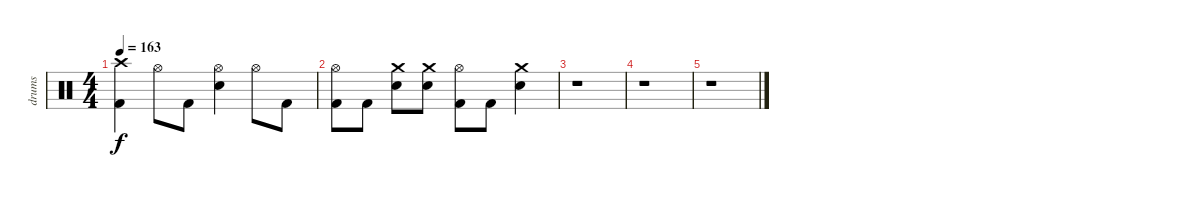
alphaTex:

\track ("drums" "drums") {instrument percussion}
\staff {score}
\articulation defaults
\ts (4 4)
\tempo 163
\clef neutral
\ks c
("Crash high (hit)" "Kick (hit) 2").4{dy f} "Hi-Hat (open)".8 "Kick (hit) 2".8 ("Hi-Hat (open)" "Snare (hit) 2").4 "Hi-Hat (open)".8 "Kick (hit) 2".8 |
("Hi-Hat (open)" "Kick (hit) 2").8 "Kick (hit) 2".8 ("Crash medium (hit)" "Snare (hit) 2").8 ("Crash medium (hit)" "Snare (hit) 2").8 ("Hi-Hat (open)" "Kick (hit) 2").8 "Kick (hit) 2".8 ("Crash medium (hit)" "Snare (hit) 2").4 |
r.1 |
r.1 |
r.1
